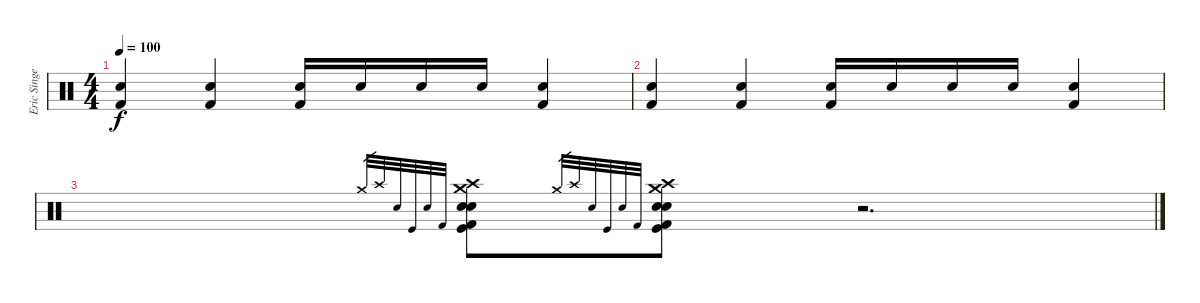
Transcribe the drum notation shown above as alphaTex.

\track ("Eric Singer" "Eric Singe") {instrument percussion}
\staff {score}
\articulation defaults
\ts (4 4)
\tempo 100
\clef neutral
\ks c
("Snare (hit) 2" "Kick (hit) 2").4{dy f} ("Snare (hit) 2" "Kick (hit) 2").4 ("Snare (hit) 2" "Kick (hit) 2").16 "Snare (hit) 2".16 "Snare (hit) 2".16 "Snare (hit) 2".16 ("Snare (hit) 2" "Kick (hit) 2").4 |
("Snare (hit) 2" "Kick (hit) 2").4 ("Snare (hit) 2" "Kick (hit) 2").4 ("Snare (hit) 2" "Kick (hit) 2").16 "Snare (hit) 2".16 "Snare (hit) 2".16 "Snare (hit) 2".16 ("Snare (hit) 2" "Kick (hit) 2").4 |
"Crash medium (hit)".32{gr} "Crash high (hit)".32{gr} "Snare (hit) 2".32{gr} "Kick (hit)".32{gr} "Electric Snare (hit)".32{gr} "Kick (hit) 2".32{gr} ("Crash medium (hit)" "Crash high (hit)" "Snare (hit) 2" "Kick (hit)" "Electric Snare (hit)" "Kick (hit) 2").8 "Crash medium (hit)".32{gr} "Crash high (hit)".32{gr} "Snare (hit) 2".32{gr} "Kick (hit)".32{gr} "Electric Snare (hit)".32{gr} "Kick (hit) 2".32{gr} ("Crash medium (hit)" "Crash high (hit)" "Snare (hit) 2" "Kick (hit)" "Electric Snare (hit)" "Kick (hit) 2").8 r.2{d}
